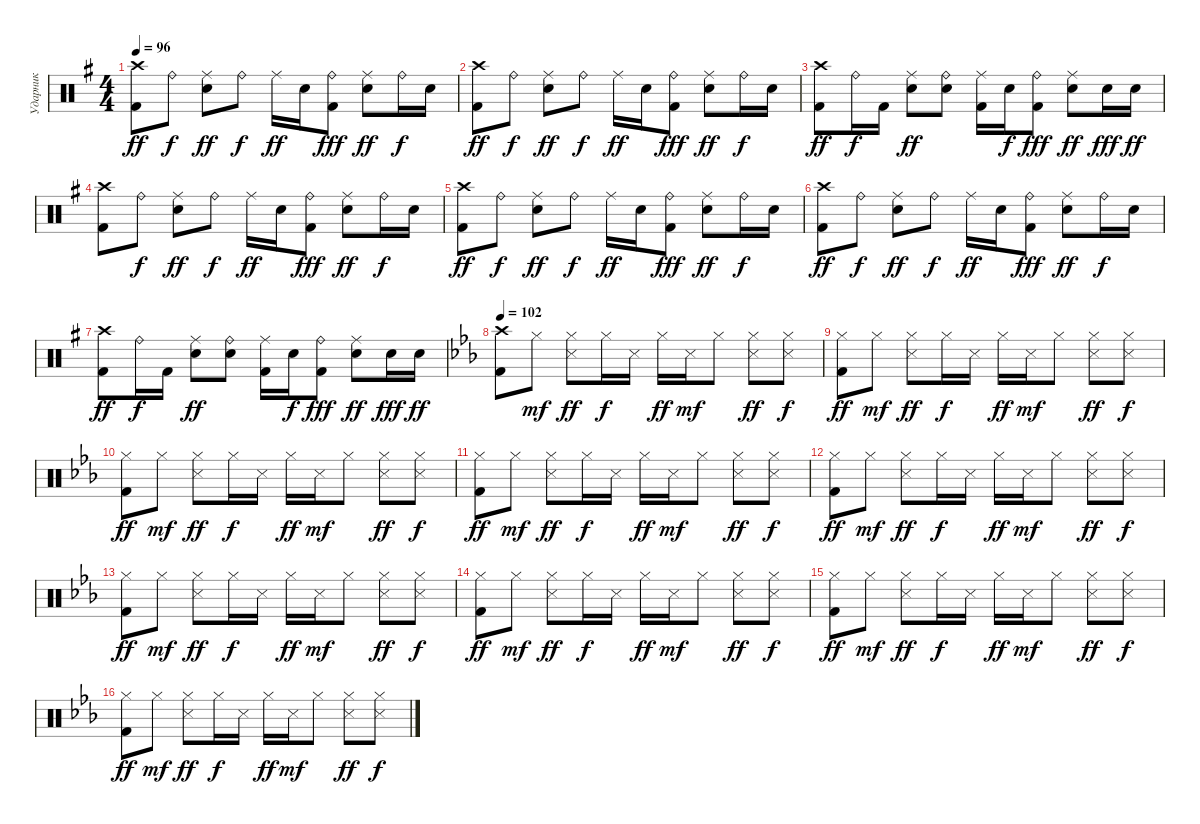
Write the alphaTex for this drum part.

\track ("Ударник" "Ударник") {instrument percussion}
\staff {score}
\articulation defaults
\ts (4 4)
\tempo 96
\clef neutral
\ks eminor
("Kick (hit) 2" "Crash high (hit)").8{dy ff} "Ride (bell)".8{dy f} ("Snare (hit) 2" "Ride (middle)").8{dy ff} "Ride (bell)".8{dy f} "Ride (middle)".16{dy ff} "Snare (hit) 2".16 ("Kick (hit) 2" "Ride (bell)").8{dy fff} ("Snare (hit) 2" "Ride (middle)").8{dy ff} "Ride (bell)".16{dy f} "Snare (hit) 2".16 |
("Kick (hit) 2" "Crash high (hit)").8{dy ff} "Ride (bell)".8{dy f} ("Snare (hit) 2" "Ride (middle)").8{dy ff} "Ride (bell)".8{dy f} "Ride (middle)".16{dy ff} "Snare (hit) 2".16 ("Kick (hit) 2" "Ride (bell)").8{dy fff} ("Snare (hit) 2" "Ride (middle)").8{dy ff} "Ride (bell)".16{dy f} "Snare (hit) 2".16 |
("Kick (hit) 2" "Crash high (hit)").8{dy ff} "Ride (bell)".16{dy f} "Kick (hit) 2".16 ("Snare (hit) 2" "Ride (middle)").8{dy ff} ("Snare (hit) 2" "Ride (bell)").8 ("Kick (hit) 2" "Ride (middle)").16 "Snare (hit) 2".16{dy f} ("Kick (hit) 2" "Ride (bell)").8{dy fff} ("Snare (hit) 2" "Ride (middle)").8{dy ff} "Snare (hit) 2".16{dy fff} "Snare (hit) 2".16{dy ff} |
("Kick (hit) 2" "Crash high (hit)").8 "Ride (bell)".8{dy f} ("Snare (hit) 2" "Ride (middle)").8{dy ff} "Ride (bell)".8{dy f} "Ride (middle)".16{dy ff} "Snare (hit) 2".16 ("Kick (hit) 2" "Ride (bell)").8{dy fff} ("Snare (hit) 2" "Ride (middle)").8{dy ff} "Ride (bell)".16{dy f} "Snare (hit) 2".16 |
("Kick (hit) 2" "Crash high (hit)").8{dy ff} "Ride (bell)".8{dy f} ("Snare (hit) 2" "Ride (middle)").8{dy ff} "Ride (bell)".8{dy f} "Ride (middle)".16{dy ff} "Snare (hit) 2".16 ("Kick (hit) 2" "Ride (bell)").8{dy fff} ("Snare (hit) 2" "Ride (middle)").8{dy ff} "Ride (bell)".16{dy f} "Snare (hit) 2".16 |
("Kick (hit) 2" "Crash high (hit)").8{dy ff} "Ride (bell)".8{dy f} ("Snare (hit) 2" "Ride (middle)").8{dy ff} "Ride (bell)".8{dy f} "Ride (middle)".16{dy ff} "Snare (hit) 2".16 ("Kick (hit) 2" "Ride (bell)").8{dy fff} ("Snare (hit) 2" "Ride (middle)").8{dy ff} "Ride (bell)".16{dy f} "Snare (hit) 2".16 |
("Kick (hit) 2" "Crash high (hit)").8{dy ff} "Ride (bell)".16{dy f} "Kick (hit) 2".16 ("Snare (hit) 2" "Ride (middle)").8{dy ff} ("Snare (hit) 2" "Ride (bell)").8 ("Kick (hit) 2" "Ride (middle)").16 "Snare (hit) 2".16{dy f} ("Kick (hit) 2" "Ride (bell)").8{dy fff} ("Snare (hit) 2" "Ride (middle)").8{dy ff} "Snare (hit) 2".16{dy fff} "Snare (hit) 2".16{dy ff} |
\tempo 102
\ks cminor
("Kick (hit) 2" "Crash high (hit)").8 "Hi-Hat (closed)".8{dy mf} ("Snare (side stick) 3" "Hi-Hat (closed)").8{dy ff} "Hi-Hat (closed)".16{dy f} "Snare (side stick) 3".16 "Hi-Hat (closed)".16{dy ff} "Snare (side stick) 3".16{dy mf} "Hi-Hat (closed)".8 ("Snare (side stick) 3" "Hi-Hat (closed)").8{dy ff} ("Snare (side stick) 3" "Hi-Hat (closed)").8{dy f} |
("Kick (hit) 2" "Hi-Hat (closed)").8{dy ff} "Hi-Hat (closed)".8{dy mf} ("Snare (side stick) 3" "Hi-Hat (closed)").8{dy ff} "Hi-Hat (closed)".16{dy f} "Snare (side stick) 3".16 "Hi-Hat (closed)".16{dy ff} "Snare (side stick) 3".16{dy mf} "Hi-Hat (closed)".8 ("Snare (side stick) 3" "Hi-Hat (closed)").8{dy ff} ("Snare (side stick) 3" "Hi-Hat (closed)").8{dy f} |
("Kick (hit) 2" "Hi-Hat (closed)").8{dy ff} "Hi-Hat (closed)".8{dy mf} ("Snare (side stick) 3" "Hi-Hat (closed)").8{dy ff} "Hi-Hat (closed)".16{dy f} "Snare (side stick) 3".16 "Hi-Hat (closed)".16{dy ff} "Snare (side stick) 3".16{dy mf} "Hi-Hat (closed)".8 ("Snare (side stick) 3" "Hi-Hat (closed)").8{dy ff} ("Snare (side stick) 3" "Hi-Hat (closed)").8{dy f} |
("Kick (hit) 2" "Hi-Hat (closed)").8{dy ff} "Hi-Hat (closed)".8{dy mf} ("Snare (side stick) 3" "Hi-Hat (closed)").8{dy ff} "Hi-Hat (closed)".16{dy f} "Snare (side stick) 3".16 "Hi-Hat (closed)".16{dy ff} "Snare (side stick) 3".16{dy mf} "Hi-Hat (closed)".8 ("Snare (side stick) 3" "Hi-Hat (closed)").8{dy ff} ("Snare (side stick) 3" "Hi-Hat (closed)").8{dy f} |
("Kick (hit) 2" "Hi-Hat (closed)").8{dy ff} "Hi-Hat (closed)".8{dy mf} ("Snare (side stick) 3" "Hi-Hat (closed)").8{dy ff} "Hi-Hat (closed)".16{dy f} "Snare (side stick) 3".16 "Hi-Hat (closed)".16{dy ff} "Snare (side stick) 3".16{dy mf} "Hi-Hat (closed)".8 ("Snare (side stick) 3" "Hi-Hat (closed)").8{dy ff} ("Snare (side stick) 3" "Hi-Hat (closed)").8{dy f} |
("Kick (hit) 2" "Hi-Hat (closed)").8{dy ff} "Hi-Hat (closed)".8{dy mf} ("Snare (side stick) 3" "Hi-Hat (closed)").8{dy ff} "Hi-Hat (closed)".16{dy f} "Snare (side stick) 3".16 "Hi-Hat (closed)".16{dy ff} "Snare (side stick) 3".16{dy mf} "Hi-Hat (closed)".8 ("Snare (side stick) 3" "Hi-Hat (closed)").8{dy ff} ("Snare (side stick) 3" "Hi-Hat (closed)").8{dy f} |
("Kick (hit) 2" "Hi-Hat (closed)").8{dy ff} "Hi-Hat (closed)".8{dy mf} ("Snare (side stick) 3" "Hi-Hat (closed)").8{dy ff} "Hi-Hat (closed)".16{dy f} "Snare (side stick) 3".16 "Hi-Hat (closed)".16{dy ff} "Snare (side stick) 3".16{dy mf} "Hi-Hat (closed)".8 ("Snare (side stick) 3" "Hi-Hat (closed)").8{dy ff} ("Snare (side stick) 3" "Hi-Hat (closed)").8{dy f} |
("Kick (hit) 2" "Hi-Hat (closed)").8{dy ff} "Hi-Hat (closed)".8{dy mf} ("Snare (side stick) 3" "Hi-Hat (closed)").8{dy ff} "Hi-Hat (closed)".16{dy f} "Snare (side stick) 3".16 "Hi-Hat (closed)".16{dy ff} "Snare (side stick) 3".16{dy mf} "Hi-Hat (closed)".8 ("Snare (side stick) 3" "Hi-Hat (closed)").8{dy ff} ("Snare (side stick) 3" "Hi-Hat (closed)").8{dy f} |
("Kick (hit) 2" "Hi-Hat (closed)").8{dy ff} "Hi-Hat (closed)".8{dy mf} ("Snare (side stick) 3" "Hi-Hat (closed)").8{dy ff} "Hi-Hat (closed)".16{dy f} "Snare (side stick) 3".16 "Hi-Hat (closed)".16{dy ff} "Snare (side stick) 3".16{dy mf} "Hi-Hat (closed)".8 ("Snare (side stick) 3" "Hi-Hat (closed)").8{dy ff} ("Snare (side stick) 3" "Hi-Hat (closed)").8{dy f}
